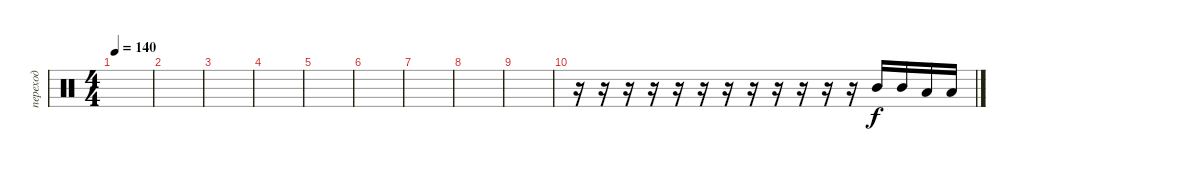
\track ("переход" "переход") {mute instrument percussion}
\staff {score}
\articulation defaults
\ts (4 4)
\tempo 140
\clef neutral
\ks c
|
|
|
|
|
|
|
|
|
r.16 r.16 r.16 r.16 r.16 r.16 r.16 r.16 r.16 r.16 r.16 r.16 "Mid Tom (hit)".16 "Mid Tom (hit)".16 "Low Tom (hit)".16 "Low Tom (hit)".16
